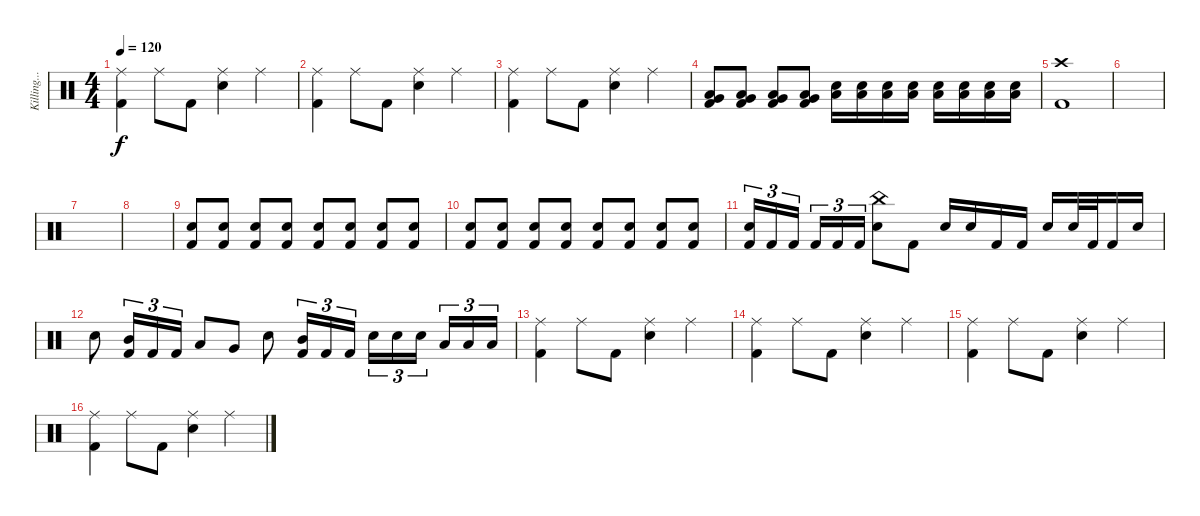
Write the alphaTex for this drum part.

\track ("Killing.....Is His Business" "Killing...") {instrument percussion}
\staff {score}
\articulation defaults
\ts (4 4)
\tempo 120
\clef neutral
\ks c
("Ride (middle)" "Kick (hit) 2").4{dy f} "Ride (middle)".8 "Kick (hit) 2".8 ("Ride (middle)" "Snare (hit) 2").4 "Ride (middle)".4 |
("Ride (middle)" "Kick (hit) 2").4 "Ride (middle)".8 "Kick (hit) 2".8 ("Ride (middle)" "Snare (hit) 2").4 "Ride (middle)".4 |
("Ride (middle)" "Kick (hit) 2").4 "Ride (middle)".8 "Kick (hit) 2".8 ("Ride (middle)" "Snare (hit) 2").4 "Ride (middle)".4 |
("Low Tom (hit)" "Very Low Tom (hit)" "Kick (hit) 2").8 ("Low Tom (hit)" "Very Low Tom (hit)" "Kick (hit) 2").8 ("Low Tom (hit)" "Very Low Tom (hit)" "Kick (hit) 2").8 ("Low Tom (hit)" "Very Low Tom (hit)" "Kick (hit) 2").8 ("Snare (hit) 2" "Low Tom (hit)").16 ("Snare (hit) 2" "Low Tom (hit)").16 ("Snare (hit) 2" "Low Tom (hit)").16 ("Snare (hit) 2" "Low Tom (hit)").16 ("Snare (hit) 2" "Low Tom (hit)").16 ("Snare (hit) 2" "Low Tom (hit)").16 ("Snare (hit) 2" "Low Tom (hit)").16 ("Snare (hit) 2" "Low Tom (hit)").16 |
("Crash high (hit)" "Kick (hit) 2").1 |
|
|
|
("Snare (hit) 2" "Kick (hit) 2").8{volume 5} ("Snare (hit) 2" "Kick (hit) 2").8{volume 9} ("Snare (hit) 2" "Kick (hit) 2").8 ("Snare (hit) 2" "Kick (hit) 2").8 ("Snare (hit) 2" "Kick (hit) 2").8 ("Snare (hit) 2" "Kick (hit) 2").8 ("Snare (hit) 2" "Kick (hit) 2").8 ("Snare (hit) 2" "Kick (hit) 2").8 |
("Snare (hit) 2" "Kick (hit) 2").8{volume 13} ("Snare (hit) 2" "Kick (hit) 2").8 ("Snare (hit) 2" "Kick (hit) 2").8 ("Snare (hit) 2" "Kick (hit) 2").8 ("Snare (hit) 2" "Kick (hit) 2").8 ("Snare (hit) 2" "Kick (hit) 2").8 ("Snare (hit) 2" "Kick (hit) 2").8 ("Snare (hit) 2" "Kick (hit) 2").8 |
("Snare (hit) 2" "Kick (hit) 2").16{tu (3 2)} "Kick (hit) 2".16{tu (3 2)} "Kick (hit) 2".16{tu (3 2)} "Kick (hit) 2".16{tu (3 2)} "Kick (hit) 2".16{tu (3 2)} "Kick (hit) 2".16{tu (3 2)} ("China (hit)" "Snare (hit) 2").8 "Kick (hit) 2".8 "Snare (hit) 2".16 "Snare (hit) 2".16 "Kick (hit) 2".16 "Kick (hit) 2".16 "Snare (hit) 2".16 "Snare (hit) 2".32 "Kick (hit) 2".32 "Kick (hit) 2".16 "Snare (hit) 2".16 |
"Snare (hit) 2".8 ("Mid Tom (hit)" "Kick (hit) 2").16{tu (3 2)} "Kick (hit) 2".16{tu (3 2)} "Kick (hit) 2".16{tu (3 2)} "Low Tom (hit)".8 "Very Low Tom (hit)".8 "Snare (hit) 2".8 ("Mid Tom (hit)" "Kick (hit) 2").16{tu (3 2)} "Kick (hit) 2".16{tu (3 2)} "Kick (hit) 2".16{tu (3 2)} "Snare (hit) 2".16{tu (3 2)} "Snare (hit) 2".16{tu (3 2)} "Snare (hit) 2".16{tu (3 2)} "Low Tom (hit)".16{tu (3 2)} "Low Tom (hit)".16{tu (3 2)} "Low Tom (hit)".16{tu (3 2)} |
("Ride (middle)" "Kick (hit) 2").4 "Ride (middle)".8 "Kick (hit) 2".8 ("Ride (middle)" "Snare (hit) 2").4 "Ride (middle)".4 |
("Ride (middle)" "Kick (hit) 2").4 "Ride (middle)".8 "Kick (hit) 2".8 ("Ride (middle)" "Snare (hit) 2").4 "Ride (middle)".4 |
("Ride (middle)" "Kick (hit) 2").4 "Ride (middle)".8 "Kick (hit) 2".8 ("Ride (middle)" "Snare (hit) 2").4 "Ride (middle)".4 |
("Ride (middle)" "Kick (hit) 2").4 "Ride (middle)".8 "Kick (hit) 2".8 ("Ride (middle)" "Snare (hit) 2").4 "Ride (middle)".4
